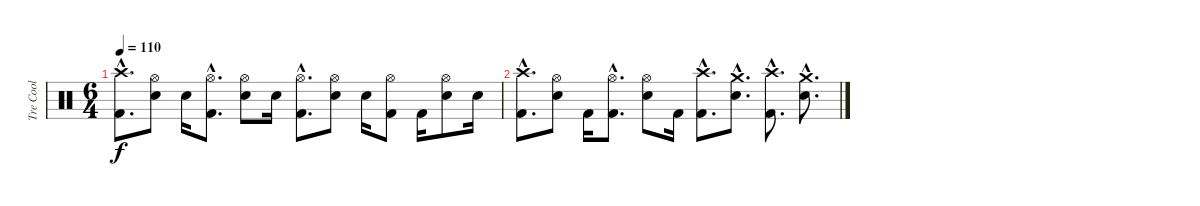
\track ("Tre Cool" "Tre Cool") {instrument percussion}
\staff {score}
\articulation defaults
\ts (6 4)
\tempo 110
\clef neutral
\ks c
("Crash high (hit)"{hac} "Kick (hit) 2"{hac}).8{d dy f} ("Hi-Hat (open)" "Electric Snare (hit)").8 "Electric Snare (hit)".16 ("Hi-Hat (open)"{hac} "Kick (hit) 2"{hac}).8{d} ("Hi-Hat (open)" "Electric Snare (hit)").8 "Electric Snare (hit)".16 ("Hi-Hat (open)"{hac} "Kick (hit) 2"{hac}).8{d} ("Hi-Hat (open)" "Electric Snare (hit)").8 "Electric Snare (hit)".16 ("Hi-Hat (open)" "Kick (hit) 2").8 "Kick (hit) 2".16 ("Hi-Hat (open)" "Electric Snare (hit)").8 "Electric Snare (hit)".16 |
("Crash high (hit)"{hac} "Kick (hit) 2"{hac}).8{d} ("Hi-Hat (open)" "Electric Snare (hit)").8 "Kick (hit) 2".16 ("Hi-Hat (open)"{hac} "Kick (hit) 2"{hac}).8{d} ("Hi-Hat (open)" "Electric Snare (hit)").8 "Kick (hit) 2".16 ("Crash high (hit)"{hac} "Kick (hit) 2"{hac}).8{d} ("Crash medium (hit)"{hac} "Electric Snare (hit)"{hac}).8{d} ("Crash high (hit)"{hac} "Kick (hit) 2"{hac}).8{d} ("Crash medium (hit)"{hac} "Electric Snare (hit)"{hac}).8{d}
